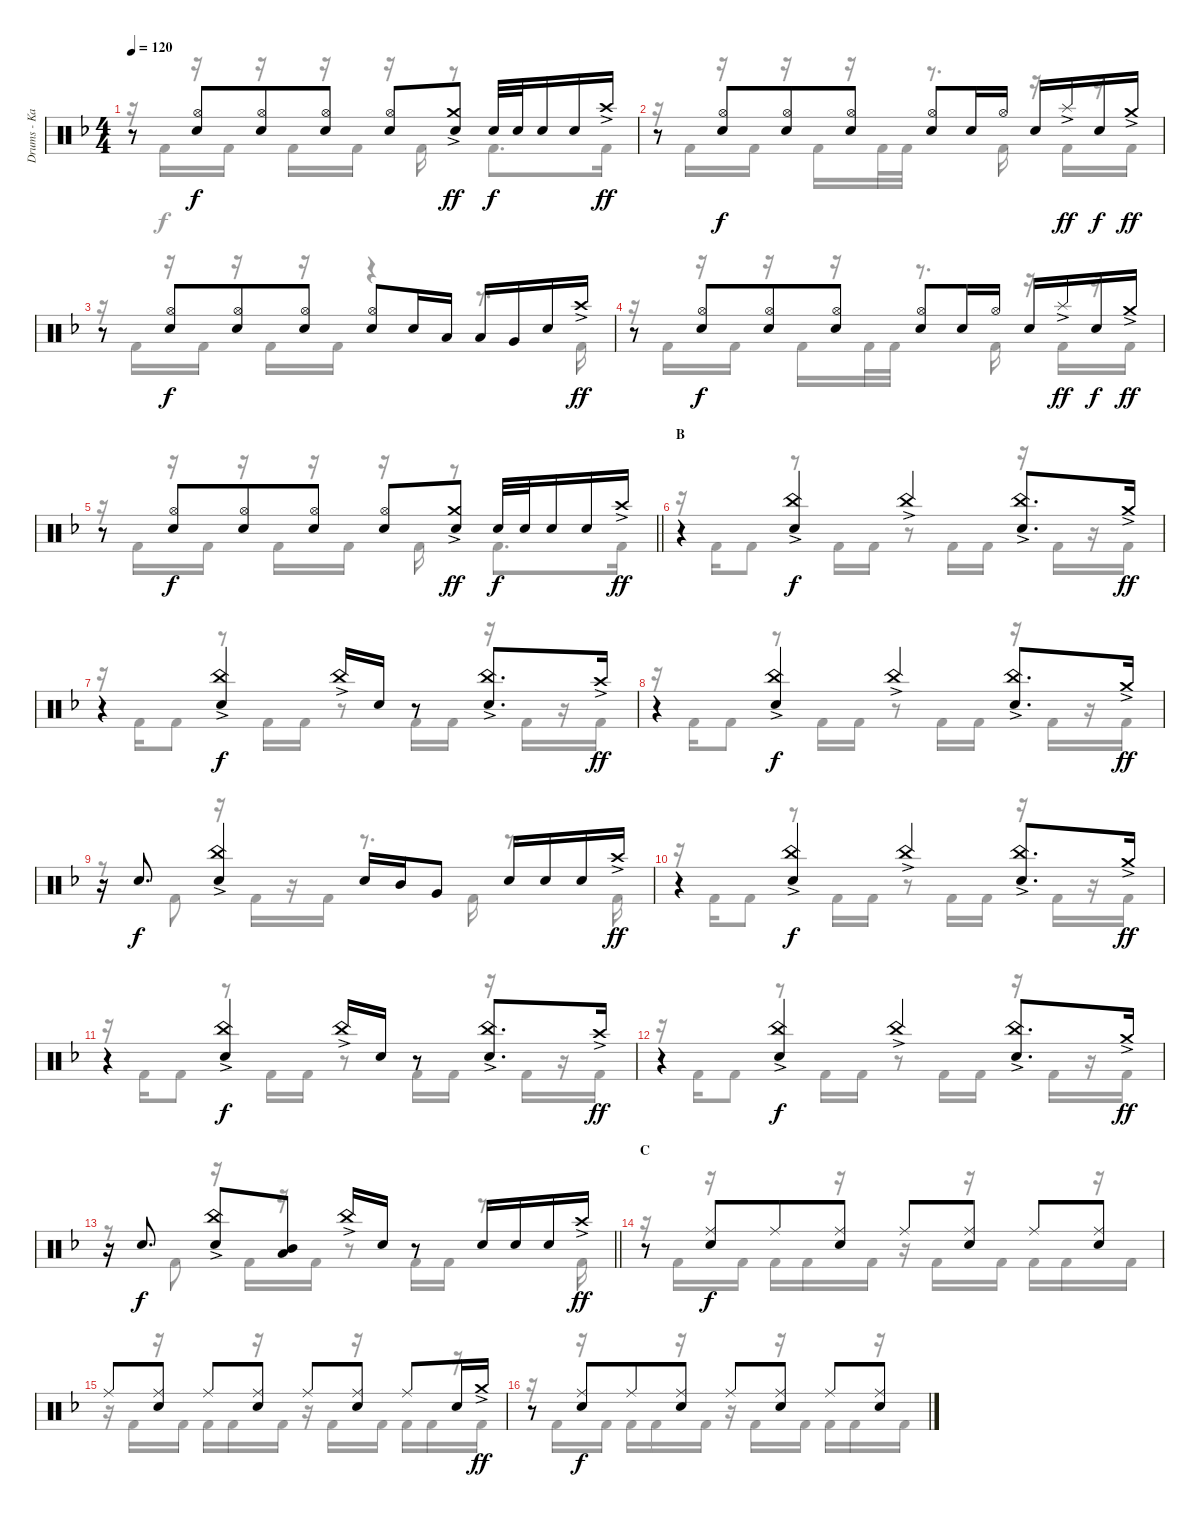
\track ("Drums - Kai" "Drums - Ka") {instrument percussion}
\staff {score}
\articulation defaults
\voice
\ts (4 4)
\tempo 120
\clef neutral
\ks f
r.8{dy ff beam merge} ("Hi-Hat (open)" "Electric Snare (hit)").8{dy f beam merge} ("Hi-Hat (open)" "Electric Snare (hit)").8{beam merge} ("Hi-Hat (open)" "Electric Snare (hit)").8{beam split} ("Hi-Hat (open)" "Electric Snare (hit)").8{beam merge} ("Crash medium (hit)"{ac} "Electric Snare (hit)").8{dy ff} "Snare (hit) 2".32{dy f} "Snare (hit) 2".32 "Snare (hit) 2".16 "Snare (hit) 2".16 "Crash high (hit)"{ac}.16{dy ff} |
r.8{beam merge} ("Hi-Hat (open)" "Electric Snare (hit)").8{dy f beam merge} ("Hi-Hat (open)" "Electric Snare (hit)").8{beam merge} ("Hi-Hat (open)" "Electric Snare (hit)").8{beam split} ("Hi-Hat (open)" "Electric Snare (hit)").8 "Electric Snare (hit)".16 "Hi-Hat (open)".16 "Electric Snare (hit)".16 "Splash (hit)"{ac}.16{dy ff} "Electric Snare (hit)".16{dy f} "Crash medium (hit)"{ac}.16{dy ff} |
r.8{beam merge} ("Hi-Hat (open)" "Electric Snare (hit)").8{dy f beam merge} ("Hi-Hat (open)" "Electric Snare (hit)").8{beam merge} ("Hi-Hat (open)" "Electric Snare (hit)").8{beam split} ("Hi-Hat (open)" "Electric Snare (hit)").8 "Electric Snare (hit)".16 "Low Tom (hit)".16 "Low Tom (hit)".16 "Very Low Tom (hit)".16 "Electric Snare (hit)".16 "Crash high (hit)"{ac}.16{dy ff} |
r.8{beam merge} ("Hi-Hat (open)" "Electric Snare (hit)").8{dy f beam merge} ("Hi-Hat (open)" "Electric Snare (hit)").8{beam merge} ("Hi-Hat (open)" "Electric Snare (hit)").8{beam split} ("Hi-Hat (open)" "Electric Snare (hit)").8 "Electric Snare (hit)".16 "Hi-Hat (open)".16 "Electric Snare (hit)".16 "Splash (hit)"{ac}.16{dy ff} "Electric Snare (hit)".16{dy f} "Crash medium (hit)"{ac}.16{dy ff} |
\barLineRight lightlight
r.8{beam merge} ("Hi-Hat (open)" "Electric Snare (hit)").8{dy f beam merge} ("Hi-Hat (open)" "Electric Snare (hit)").8{beam merge} ("Hi-Hat (open)" "Electric Snare (hit)").8{beam split} ("Hi-Hat (open)" "Electric Snare (hit)").8{beam merge} ("Crash medium (hit)"{ac} "Electric Snare (hit)").8{dy ff} "Electric Snare (hit)".32{dy f} "Electric Snare (hit)".32 "Electric Snare (hit)".16 "Electric Snare (hit)".16 "Crash high (hit)"{ac}.16{dy ff} |
\section ("" "B")
r.4 ("China (hit)"{ac} "Electric Snare (hit)").4{dy f} "China (hit)"{ac}.4 ("China (hit)"{ac} "Electric Snare (hit)").8{d} "Crash medium (hit)"{ac}.16{dy ff} |
r.4 ("China (hit)"{ac} "Electric Snare (hit)").4{dy f} "China (hit)"{ac}.16 "Electric Snare (hit)".16 r.8 ("China (hit)"{ac} "Electric Snare (hit)").8{d} "Crash high (hit)"{ac}.16{dy ff} |
r.4 ("China (hit)"{ac} "Electric Snare (hit)").4{dy f} "China (hit)"{ac}.4 ("China (hit)"{ac} "Electric Snare (hit)").8{d} "Crash medium (hit)"{ac}.16{dy ff} |
r.16 "Electric Snare (hit)".8{d dy f} ("China (hit)"{ac} "Electric Snare (hit)").4 "Electric Snare (hit)".16 "Mid Tom (hit)".16 "Very Low Tom (hit)".8 "Electric Snare (hit)".16 "Electric Snare (hit)".16 "Electric Snare (hit)".16 "Crash high (hit)"{ac}.16{dy ff} |
r.4 ("China (hit)"{ac} "Electric Snare (hit)").4{dy f} "China (hit)"{ac}.4 ("China (hit)"{ac} "Electric Snare (hit)").8{d} "Crash medium (hit)"{ac}.16{dy ff} |
r.4 ("China (hit)"{ac} "Electric Snare (hit)").4{dy f} "China (hit)"{ac}.16 "Electric Snare (hit)".16 r.8 ("China (hit)"{ac} "Electric Snare (hit)").8{d} "Crash high (hit)"{ac}.16{dy ff} |
r.4 ("China (hit)"{ac} "Electric Snare (hit)").4{dy f} "China (hit)"{ac}.4 ("China (hit)"{ac} "Electric Snare (hit)").8{d} "Crash medium (hit)"{ac}.16{dy ff} |
\barLineRight lightlight
r.16 "Electric Snare (hit)".8{d dy f} ("China (hit)"{ac} "Electric Snare (hit)").8 ("Mid Tom (hit)" "Low Tom (hit)").8 "China (hit)"{ac}.16 "Electric Snare (hit)".16 r.8 "Electric Snare (hit)".16 "Electric Snare (hit)".16 "Electric Snare (hit)".16 "Crash high (hit)"{ac}.16{dy ff} |
\section ("" "C")
r.8 ("Ride (middle)" "Electric Snare (hit)").8{dy f beam merge} "Ride (middle)".8 ("Ride (middle)" "Electric Snare (hit)").8 "Ride (middle)".8 ("Ride (middle)" "Electric Snare (hit)").8 "Ride (middle)".8 ("Ride (middle)" "Electric Snare (hit)").8 |
"Ride (middle)".8 ("Ride (middle)" "Electric Snare (hit)").8 "Ride (middle)".8 ("Ride (middle)" "Electric Snare (hit)").8 "Ride (middle)".8 ("Ride (middle)" "Electric Snare (hit)").8 "Ride (middle)".8 "Electric Snare (hit)".16 "Crash medium (hit)"{ac}.16{dy ff} |
r.8 ("Ride (middle)" "Electric Snare (hit)").8{dy f beam merge} "Ride (middle)".8 ("Ride (middle)" "Electric Snare (hit)").8 "Ride (middle)".8 ("Ride (middle)" "Electric Snare (hit)").8 "Ride (middle)".8 ("Ride (middle)" "Electric Snare (hit)").8
\voice
\clef neutral
\ottava regular
\simile none
\ks f
r.16{dy f} "Kick (hit) 2".16 r.16 "Kick (hit) 2".16 r.16 "Kick (hit) 2".16 r.16 "Kick (hit) 2".16 r.16 "Kick (hit) 2".16 r.8 "Kick (hit) 2".8{d} "Kick (hit) 2".16 |
r.16 "Kick (hit) 2".16 r.16 "Kick (hit) 2".16 r.16 "Kick (hit) 2".16 r.16 "Kick (hit) 2".32 "Kick (hit) 2".32 r.8{d} "Kick (hit) 2".16 r.16 "Kick (hit) 2".16 r.16 "Kick (hit) 2".16 |
r.16 "Kick (hit) 2".16 r.16 "Kick (hit) 2".16 r.16 "Kick (hit) 2".16 r.16 "Kick (hit) 2".16 r.4 r.8{d} "Kick (hit) 2".16 |
r.16 "Kick (hit) 2".16 r.16 "Kick (hit) 2".16 r.16 "Kick (hit) 2".16 r.16 "Kick (hit) 2".32 "Kick (hit) 2".32 r.8{d} "Kick (hit) 2".16 r.16 "Kick (hit) 2".16 r.16 "Kick (hit) 2".16 |
\barLineRight lightlight
r.16 "Kick (hit) 2".16 r.16 "Kick (hit) 2".16 r.16 "Kick (hit) 2".16 r.16 "Kick (hit) 2".16 r.16 "Kick (hit) 2".16 r.8 "Kick (hit) 2".8{d} "Kick (hit) 2".16 |
r.16 "Kick (hit) 2".16 "Kick (hit) 2".8 r.8 "Kick (hit) 2".16 "Kick (hit) 2".16 r.8 "Kick (hit) 2".16 "Kick (hit) 2".16 r.16 "Kick (hit) 2".16 r.16 "Kick (hit) 2".16 |
r.16 "Kick (hit) 2".16 "Kick (hit) 2".8 r.8 "Kick (hit) 2".16 "Kick (hit) 2".16 r.8 "Kick (hit) 2".16 "Kick (hit) 2".16 r.16 "Kick (hit) 2".16 r.16 "Kick (hit) 2".16 |
r.16 "Kick (hit) 2".16 "Kick (hit) 2".8 r.8 "Kick (hit) 2".16 "Kick (hit) 2".16 r.8 "Kick (hit) 2".16 "Kick (hit) 2".16 r.16 "Kick (hit) 2".16 r.16 "Kick (hit) 2".16 |
r.8 "Kick (hit) 2".8 r.16 "Kick (hit) 2".16 r.16 "Kick (hit) 2".16 r.8{d} "Kick (hit) 2".16 r.8{d} "Kick (hit) 2".16 |
r.16 "Kick (hit) 2".16 "Kick (hit) 2".8 r.8 "Kick (hit) 2".16 "Kick (hit) 2".16 r.8 "Kick (hit) 2".16 "Kick (hit) 2".16 r.16 "Kick (hit) 2".16 r.16 "Kick (hit) 2".16 |
r.16 "Kick (hit) 2".16 "Kick (hit) 2".8 r.8 "Kick (hit) 2".16 "Kick (hit) 2".16 r.8 "Kick (hit) 2".16 "Kick (hit) 2".16 r.16 "Kick (hit) 2".16 r.16 "Kick (hit) 2".16 |
r.16 "Kick (hit) 2".16 "Kick (hit) 2".8 r.8 "Kick (hit) 2".16 "Kick (hit) 2".16 r.8 "Kick (hit) 2".16 "Kick (hit) 2".16 r.16 "Kick (hit) 2".16 r.16 "Kick (hit) 2".16 |
\barLineRight lightlight
r.8 "Kick (hit) 2".8 r.16 "Kick (hit) 2".16 r.16 "Kick (hit) 2".16 r.8 "Kick (hit) 2".16 "Kick (hit) 2".16 r.8{d} "Kick (hit) 2".16 |
r.16 "Kick (hit) 2".16 r.16 "Kick (hit) 2".16 "Kick (hit) 2".16 "Kick (hit) 2".16 r.16 "Kick (hit) 2".16 r.16 "Kick (hit) 2".16 r.16 "Kick (hit) 2".16 "Kick (hit) 2".16 "Kick (hit) 2".16 r.16 "Kick (hit) 2".16 |
r.16 "Kick (hit) 2".16 r.16 "Kick (hit) 2".16 "Kick (hit) 2".16 "Kick (hit) 2".16 r.16 "Kick (hit) 2".16 r.16 "Kick (hit) 2".16 r.16 "Kick (hit) 2".16 "Kick (hit) 2".16 "Kick (hit) 2".16 r.16 "Kick (hit) 2".16 |
r.16 "Kick (hit) 2".16 r.16 "Kick (hit) 2".16 "Kick (hit) 2".16 "Kick (hit) 2".16 r.16 "Kick (hit) 2".16 r.16 "Kick (hit) 2".16 r.16 "Kick (hit) 2".16 "Kick (hit) 2".16 "Kick (hit) 2".16 r.16 "Kick (hit) 2".16
